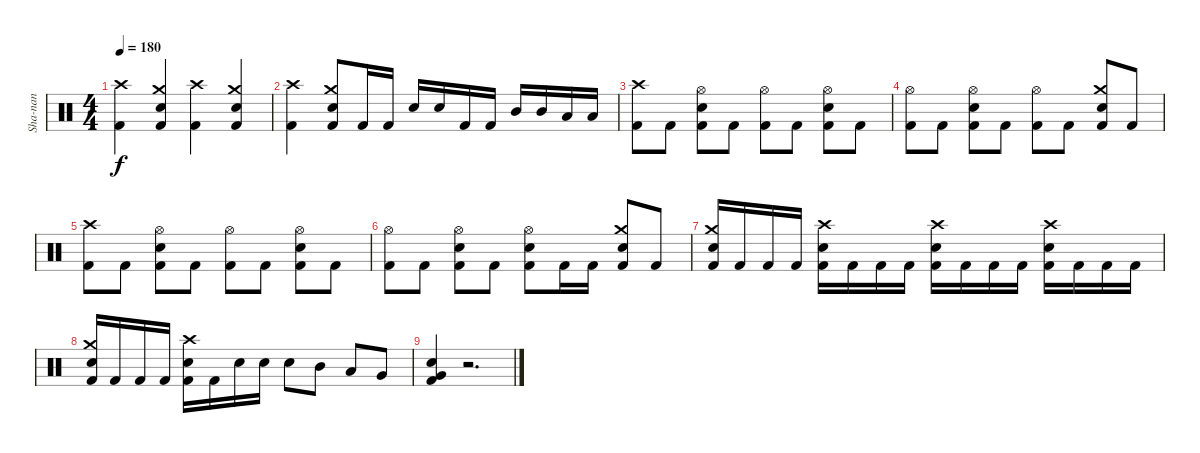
\track ("Sha-nan" "Sha-nan") {instrument percussion}
\staff {score}
\articulation defaults
\ts (4 4)
\tempo 180
\clef neutral
\ks c
("Crash high (hit)" "Kick (hit) 2").4{dy f} ("Crash medium (hit)" "Snare (hit) 2" "Kick (hit) 2").4 ("Crash high (hit)" "Kick (hit) 2").4 ("Crash medium (hit)" "Snare (hit) 2" "Kick (hit) 2").4 |
("Crash high (hit)" "Kick (hit) 2").4 ("Crash medium (hit)" "Snare (hit) 2" "Kick (hit) 2").8 "Kick (hit) 2".16 "Kick (hit) 2".16 "Snare (hit) 2".16 "Snare (hit) 2".16 "Kick (hit) 2".16 "Kick (hit) 2".16 "Mid Tom (hit)".16 "Mid Tom (hit)".16 "Low Tom (hit)".16 "Low Tom (hit)".16 |
("Crash high (hit)" "Kick (hit) 2").8 "Kick (hit) 2".8 ("Hi-Hat (open)" "Snare (hit) 2" "Kick (hit) 2").8 "Kick (hit) 2".8 ("Hi-Hat (open)" "Kick (hit) 2").8 "Kick (hit) 2".8 ("Hi-Hat (open)" "Snare (hit) 2" "Kick (hit) 2").8 "Kick (hit) 2".8 |
("Hi-Hat (open)" "Kick (hit) 2").8 "Kick (hit) 2".8 ("Hi-Hat (open)" "Snare (hit) 2" "Kick (hit) 2").8 "Kick (hit) 2".8 ("Hi-Hat (open)" "Kick (hit) 2").8 "Kick (hit) 2".8 ("Crash medium (hit)" "Snare (hit) 2" "Kick (hit) 2").8 "Kick (hit) 2".8 |
("Crash high (hit)" "Kick (hit) 2").8 "Kick (hit) 2".8 ("Hi-Hat (open)" "Snare (hit) 2" "Kick (hit) 2").8 "Kick (hit) 2".8 ("Hi-Hat (open)" "Kick (hit) 2").8 "Kick (hit) 2".8 ("Hi-Hat (open)" "Snare (hit) 2" "Kick (hit) 2").8 "Kick (hit) 2".8 |
("Hi-Hat (open)" "Kick (hit) 2").8 "Kick (hit) 2".8 ("Hi-Hat (open)" "Snare (hit) 2" "Kick (hit) 2").8 "Kick (hit) 2".8 ("Hi-Hat (open)" "Snare (hit) 2" "Kick (hit) 2").8 "Kick (hit) 2".16 "Kick (hit) 2".16 ("Crash medium (hit)" "Snare (hit) 2" "Kick (hit) 2").8 "Kick (hit) 2".8 |
("Crash medium (hit)" "Snare (hit) 2" "Kick (hit) 2").16 "Kick (hit) 2".16 "Kick (hit) 2".16 "Kick (hit) 2".16 ("Crash high (hit)" "Snare (hit) 2" "Kick (hit) 2").16 "Kick (hit) 2".16 "Kick (hit) 2".16 "Kick (hit) 2".16 ("Crash high (hit)" "Snare (hit) 2" "Kick (hit) 2").16 "Kick (hit) 2".16 "Kick (hit) 2".16 "Kick (hit) 2".16 ("Crash high (hit)" "Snare (hit) 2" "Kick (hit) 2").16 "Kick (hit) 2".16 "Kick (hit) 2".16 "Kick (hit) 2".16 |
("Crash medium (hit)" "Snare (hit) 2" "Kick (hit) 2").16 "Kick (hit) 2".16 "Kick (hit) 2".16 "Kick (hit) 2".16 ("Crash high (hit)" "Snare (hit) 2" "Kick (hit) 2").16 "Kick (hit) 2".16 "Snare (hit) 2".16 "Snare (hit) 2".16 "Snare (hit) 2".8 "Mid Tom (hit)".8 "Low Tom (hit)".8 "Very Low Tom (hit)".8 |
("Very Low Tom (hit)" "Snare (hit) 2" "Kick (hit) 2").4 r.2{d}
